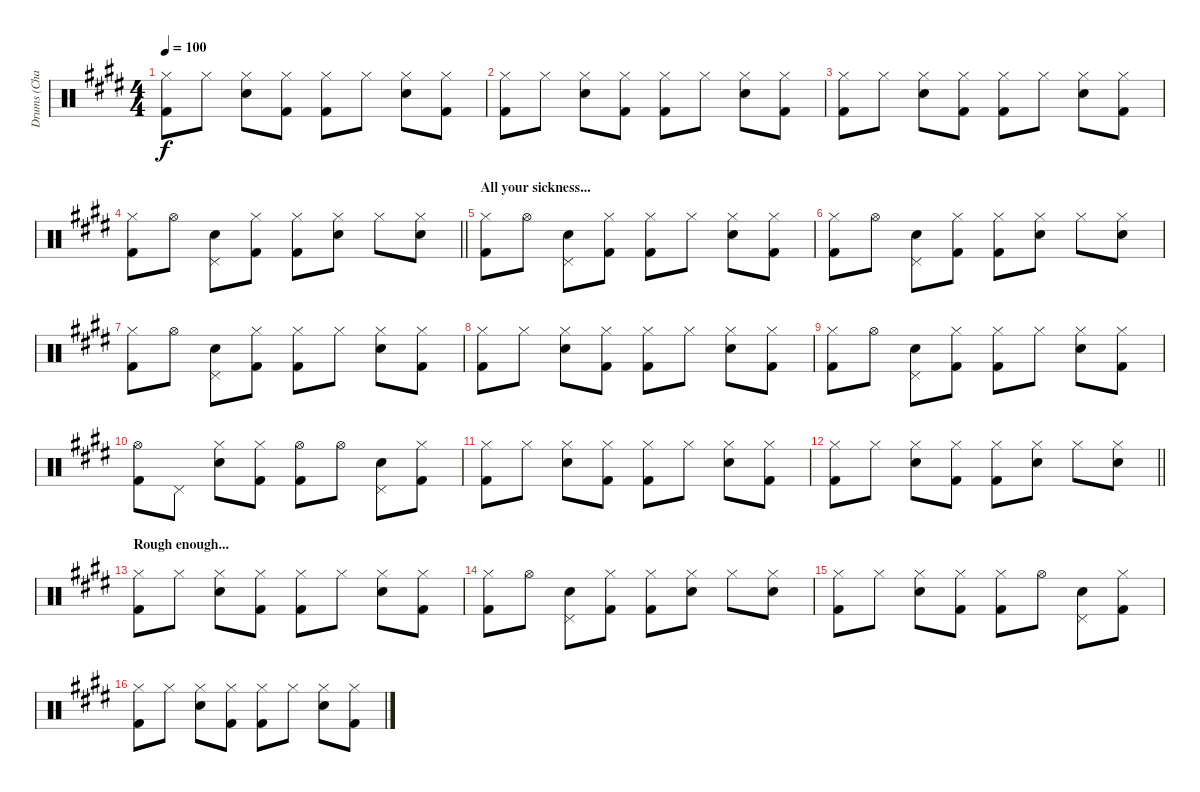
\track ("Drums (Charlie)" "Drums (Cha") {instrument percussion}
\staff {score}
\articulation defaults
\ts (4 4)
\tempo 100
\clef neutral
\ks c#minor
("Hi-Hat (closed)" "Kick (hit) 2").8{dy f} "Hi-Hat (closed)".8 ("Hi-Hat (closed)" "Snare (hit) 2").8 ("Hi-Hat (closed)" "Kick (hit) 2").8 ("Hi-Hat (closed)" "Kick (hit) 2").8 "Hi-Hat (closed)".8 ("Hi-Hat (closed)" "Snare (hit) 2").8 ("Hi-Hat (closed)" "Kick (hit) 2").8 |
("Hi-Hat (closed)" "Kick (hit) 2").8 "Hi-Hat (closed)".8 ("Hi-Hat (closed)" "Snare (hit) 2").8 ("Hi-Hat (closed)" "Kick (hit) 2").8 ("Hi-Hat (closed)" "Kick (hit) 2").8 "Hi-Hat (closed)".8 ("Hi-Hat (closed)" "Snare (hit) 2").8 ("Hi-Hat (closed)" "Kick (hit) 2").8 |
\ks e
("Hi-Hat (closed)" "Kick (hit) 2").8 "Hi-Hat (closed)".8 ("Hi-Hat (closed)" "Snare (hit) 2").8 ("Hi-Hat (closed)" "Kick (hit) 2").8 ("Hi-Hat (closed)" "Kick (hit) 2").8 "Hi-Hat (closed)".8 ("Hi-Hat (closed)" "Snare (hit) 2").8 ("Hi-Hat (closed)" "Kick (hit) 2").8 |
\barLineRight lightlight
\ks c#minor
("Hi-Hat (closed)" "Kick (hit) 2").8 "Hi-Hat (open)".8 ("Pedal Hi-Hat (hit)" "Snare (hit) 2").8 ("Hi-Hat (closed)" "Kick (hit) 2").8 ("Hi-Hat (closed)" "Kick (hit) 2").8 ("Hi-Hat (closed)" "Snare (hit) 2").8 "Hi-Hat (closed)".8 ("Hi-Hat (closed)" "Snare (hit) 2").8 |
\section ("" "All your sickness...")
("Hi-Hat (closed)" "Kick (hit) 2").8 "Hi-Hat (open)".8 ("Pedal Hi-Hat (hit)" "Snare (hit) 2").8 ("Hi-Hat (closed)" "Kick (hit) 2").8 ("Hi-Hat (closed)" "Kick (hit) 2").8 "Hi-Hat (closed)".8 ("Hi-Hat (closed)" "Snare (hit) 2").8 ("Hi-Hat (closed)" "Kick (hit) 2").8 |
("Hi-Hat (closed)" "Kick (hit) 2").8 "Hi-Hat (open)".8 ("Pedal Hi-Hat (hit)" "Snare (hit) 2").8 ("Hi-Hat (closed)" "Kick (hit) 2").8 ("Hi-Hat (closed)" "Kick (hit) 2").8 ("Hi-Hat (closed)" "Snare (hit) 2").8 "Hi-Hat (closed)".8 ("Hi-Hat (closed)" "Snare (hit) 2").8 |
\ks e
("Hi-Hat (closed)" "Kick (hit) 2").8 "Hi-Hat (open)".8 ("Pedal Hi-Hat (hit)" "Snare (hit) 2").8 ("Hi-Hat (closed)" "Kick (hit) 2").8 ("Hi-Hat (closed)" "Kick (hit) 2").8 "Hi-Hat (closed)".8 ("Hi-Hat (closed)" "Snare (hit) 2").8 ("Hi-Hat (closed)" "Kick (hit) 2").8 |
\ks c#minor
("Hi-Hat (closed)" "Kick (hit) 2").8 "Hi-Hat (closed)".8 ("Hi-Hat (closed)" "Snare (hit) 2").8 ("Hi-Hat (closed)" "Kick (hit) 2").8 ("Hi-Hat (closed)" "Kick (hit) 2").8 "Hi-Hat (closed)".8 ("Hi-Hat (closed)" "Snare (hit) 2").8 ("Hi-Hat (closed)" "Kick (hit) 2").8 |
("Hi-Hat (closed)" "Kick (hit) 2").8 "Hi-Hat (open)".8 ("Pedal Hi-Hat (hit)" "Snare (hit) 2").8 ("Hi-Hat (closed)" "Kick (hit) 2").8 ("Hi-Hat (closed)" "Kick (hit) 2").8 "Hi-Hat (closed)".8 ("Hi-Hat (closed)" "Snare (hit) 2").8 ("Hi-Hat (closed)" "Kick (hit) 2").8 |
\ks e
("Hi-Hat (open)" "Kick (hit) 2").8 "Pedal Hi-Hat (hit)".8 ("Hi-Hat (closed)" "Snare (hit) 2").8 ("Hi-Hat (closed)" "Kick (hit) 2").8 ("Hi-Hat (open)" "Kick (hit) 2").8 "Hi-Hat (open)".8 ("Pedal Hi-Hat (hit)" "Snare (hit) 2").8 ("Hi-Hat (closed)" "Kick (hit) 2").8 |
\ks c#minor
("Hi-Hat (closed)" "Kick (hit) 2").8 "Hi-Hat (closed)".8 ("Hi-Hat (closed)" "Snare (hit) 2").8 ("Hi-Hat (closed)" "Kick (hit) 2").8 ("Hi-Hat (closed)" "Kick (hit) 2").8 "Hi-Hat (closed)".8 ("Hi-Hat (closed)" "Snare (hit) 2").8 ("Hi-Hat (closed)" "Kick (hit) 2").8 |
\barLineRight lightlight
("Hi-Hat (closed)" "Kick (hit) 2").8 "Hi-Hat (closed)".8 ("Hi-Hat (closed)" "Snare (hit) 2").8 ("Hi-Hat (closed)" "Kick (hit) 2").8 ("Hi-Hat (closed)" "Kick (hit) 2").8 ("Hi-Hat (closed)" "Snare (hit) 2").8 "Hi-Hat (closed)".8 ("Hi-Hat (closed)" "Snare (hit) 2").8 |
\section ("" "Rough enough...")
\ks e
("Hi-Hat (closed)" "Kick (hit) 2").8 "Hi-Hat (closed)".8 ("Hi-Hat (closed)" "Snare (hit) 2").8 ("Hi-Hat (closed)" "Kick (hit) 2").8 ("Hi-Hat (closed)" "Kick (hit) 2").8 "Hi-Hat (closed)".8 ("Hi-Hat (closed)" "Snare (hit) 2").8 ("Hi-Hat (closed)" "Kick (hit) 2").8 |
\ks c#minor
("Hi-Hat (closed)" "Kick (hit) 2").8 "Hi-Hat (open)".8 ("Pedal Hi-Hat (hit)" "Snare (hit) 2").8 ("Hi-Hat (closed)" "Kick (hit) 2").8 ("Hi-Hat (closed)" "Kick (hit) 2").8 ("Hi-Hat (closed)" "Snare (hit) 2").8 "Hi-Hat (closed)".8 ("Hi-Hat (closed)" "Snare (hit) 2").8 |
("Hi-Hat (closed)" "Kick (hit) 2").8 "Hi-Hat (closed)".8 ("Hi-Hat (closed)" "Snare (hit) 2").8 ("Hi-Hat (closed)" "Kick (hit) 2").8 ("Hi-Hat (closed)" "Kick (hit) 2").8 "Hi-Hat (open)".8 ("Pedal Hi-Hat (hit)" "Snare (hit) 2").8 ("Hi-Hat (closed)" "Kick (hit) 2").8 |
\ks e
("Hi-Hat (closed)" "Kick (hit) 2").8 "Hi-Hat (closed)".8 ("Hi-Hat (closed)" "Snare (hit) 2").8 ("Hi-Hat (closed)" "Kick (hit) 2").8 ("Hi-Hat (closed)" "Kick (hit) 2").8 "Hi-Hat (closed)".8 ("Hi-Hat (closed)" "Snare (hit) 2").8 ("Hi-Hat (closed)" "Kick (hit) 2").8
